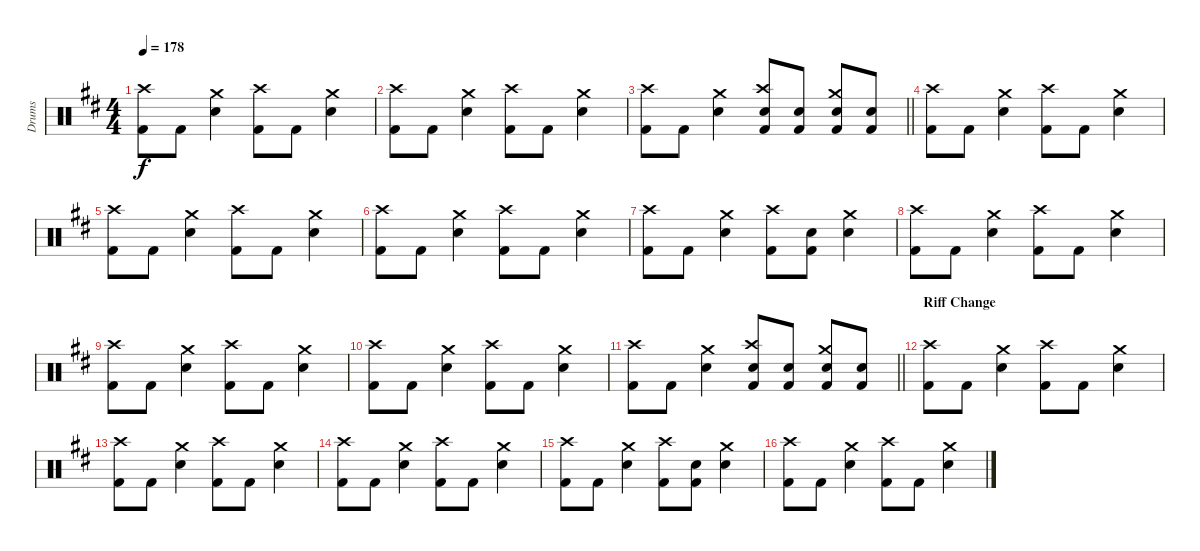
\track ("Drums" "Drums") {instrument percussion}
\staff {score}
\articulation defaults
\ts (4 4)
\tempo 178
\clef neutral
\ks d
("Kick (hit) 2" "Crash high (hit)").8{dy f} "Kick (hit) 2".8 ("Crash medium (hit)" "Snare (hit) 2").4 ("Kick (hit) 2" "Crash high (hit)").8 "Kick (hit) 2".8 ("Crash medium (hit)" "Snare (hit) 2").4 |
("Kick (hit) 2" "Crash high (hit)").8 "Kick (hit) 2".8 ("Crash medium (hit)" "Snare (hit) 2").4 ("Kick (hit) 2" "Crash high (hit)").8 "Kick (hit) 2".8 ("Crash medium (hit)" "Snare (hit) 2").4 |
\barLineRight lightlight
("Kick (hit) 2" "Crash high (hit)").8 "Kick (hit) 2".8 ("Crash medium (hit)" "Snare (hit) 2").4 ("Kick (hit) 2" "Crash high (hit)" "Snare (hit) 2").8 ("Kick (hit) 2" "Snare (hit) 2").8 ("Kick (hit) 2" "Crash medium (hit)" "Snare (hit) 2").8 ("Kick (hit) 2" "Snare (hit) 2").8 |
("Kick (hit) 2" "Crash high (hit)").8 "Kick (hit) 2".8 ("Crash medium (hit)" "Snare (hit) 2").4 ("Kick (hit) 2" "Crash high (hit)").8 "Kick (hit) 2".8 ("Crash medium (hit)" "Snare (hit) 2").4 |
("Kick (hit) 2" "Crash high (hit)").8 "Kick (hit) 2".8 ("Crash medium (hit)" "Snare (hit) 2").4 ("Kick (hit) 2" "Crash high (hit)").8 "Kick (hit) 2".8 ("Crash medium (hit)" "Snare (hit) 2").4 |
("Kick (hit) 2" "Crash high (hit)").8 "Kick (hit) 2".8 ("Crash medium (hit)" "Snare (hit) 2").4 ("Kick (hit) 2" "Crash high (hit)").8 "Kick (hit) 2".8 ("Crash medium (hit)" "Snare (hit) 2").4 |
("Kick (hit) 2" "Crash high (hit)").8 "Kick (hit) 2".8 ("Crash medium (hit)" "Snare (hit) 2").4 ("Kick (hit) 2" "Crash high (hit)").8 ("Kick (hit) 2" "Snare (hit) 2").8 ("Crash medium (hit)" "Snare (hit) 2").4 |
("Kick (hit) 2" "Crash high (hit)").8 "Kick (hit) 2".8 ("Crash medium (hit)" "Snare (hit) 2").4 ("Kick (hit) 2" "Crash high (hit)").8 "Kick (hit) 2".8 ("Crash medium (hit)" "Snare (hit) 2").4 |
("Kick (hit) 2" "Crash high (hit)").8 "Kick (hit) 2".8 ("Crash medium (hit)" "Snare (hit) 2").4 ("Kick (hit) 2" "Crash high (hit)").8 "Kick (hit) 2".8 ("Crash medium (hit)" "Snare (hit) 2").4 |
("Kick (hit) 2" "Crash high (hit)").8 "Kick (hit) 2".8 ("Crash medium (hit)" "Snare (hit) 2").4 ("Kick (hit) 2" "Crash high (hit)").8 "Kick (hit) 2".8 ("Crash medium (hit)" "Snare (hit) 2").4 |
\barLineRight lightlight
("Kick (hit) 2" "Crash high (hit)").8 "Kick (hit) 2".8 ("Crash medium (hit)" "Snare (hit) 2").4 ("Kick (hit) 2" "Crash high (hit)" "Snare (hit) 2").8 ("Kick (hit) 2" "Snare (hit) 2").8 ("Kick (hit) 2" "Crash medium (hit)" "Snare (hit) 2").8 ("Kick (hit) 2" "Snare (hit) 2").8 |
\section ("" "Riff Change")
("Kick (hit) 2" "Crash high (hit)").8 "Kick (hit) 2".8 ("Crash medium (hit)" "Snare (hit) 2").4 ("Kick (hit) 2" "Crash high (hit)").8 "Kick (hit) 2".8 ("Crash medium (hit)" "Snare (hit) 2").4 |
("Kick (hit) 2" "Crash high (hit)").8 "Kick (hit) 2".8 ("Crash medium (hit)" "Snare (hit) 2").4 ("Kick (hit) 2" "Crash high (hit)").8 "Kick (hit) 2".8 ("Crash medium (hit)" "Snare (hit) 2").4 |
("Kick (hit) 2" "Crash high (hit)").8 "Kick (hit) 2".8 ("Crash medium (hit)" "Snare (hit) 2").4 ("Kick (hit) 2" "Crash high (hit)").8 "Kick (hit) 2".8 ("Crash medium (hit)" "Snare (hit) 2").4 |
("Kick (hit) 2" "Crash high (hit)").8 "Kick (hit) 2".8 ("Crash medium (hit)" "Snare (hit) 2").4 ("Kick (hit) 2" "Crash high (hit)").8 ("Kick (hit) 2" "Snare (hit) 2").8 ("Crash medium (hit)" "Snare (hit) 2").4 |
("Kick (hit) 2" "Crash high (hit)").8 "Kick (hit) 2".8 ("Crash medium (hit)" "Snare (hit) 2").4 ("Kick (hit) 2" "Crash high (hit)").8 "Kick (hit) 2".8 ("Crash medium (hit)" "Snare (hit) 2").4
